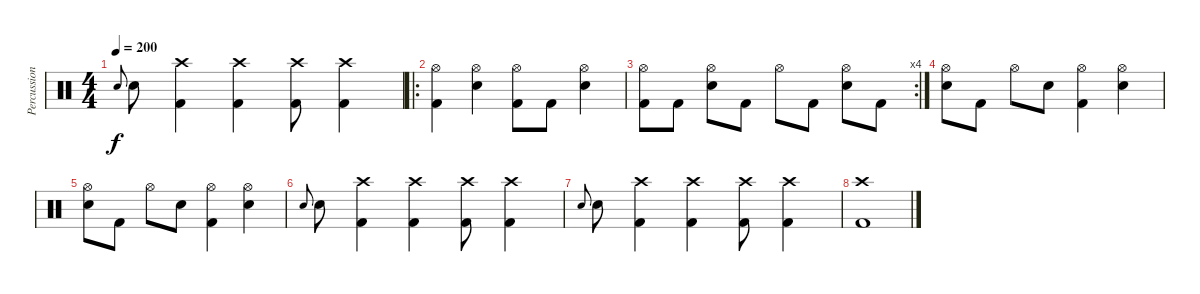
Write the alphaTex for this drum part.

\track ("Percussion" "Percussion") {instrument percussion}
\staff {score}
\articulation defaults
\ts (4 4)
\tempo 200
\clef neutral
\ks c "Electric Snare (hit)".8{gr onbeat dy f} "Electric Snare (hit)".8
("Crash high (hit)" "Kick (hit) 2").4 ("Crash high (hit)" "Kick (hit) 2").4 ("Crash high (hit)" "Kick (hit) 2").8 ("Crash high (hit)" "Kick (hit) 2").4 |
\ro
("Hi-Hat (open)" "Kick (hit) 2").4 ("Hi-Hat (open)" "Electric Snare (hit)").4 ("Hi-Hat (open)" "Kick (hit) 2").8 "Kick (hit) 2".8 ("Hi-Hat (open)" "Electric Snare (hit)").4 |
\rc 4
("Hi-Hat (open)" "Kick (hit) 2").8 "Kick (hit) 2".8 ("Hi-Hat (open)" "Electric Snare (hit)").8 "Kick (hit) 2".8 "Hi-Hat (open)".8 "Kick (hit) 2".8 ("Hi-Hat (open)" "Electric Snare (hit)").8 "Kick (hit) 2".8 |
("Hi-Hat (open)" "Electric Snare (hit)").8 "Kick (hit) 2".8 "Hi-Hat (open)".8 "Electric Snare (hit)".8 ("Hi-Hat (open)" "Kick (hit) 2").4 ("Hi-Hat (open)" "Electric Snare (hit)").4 |
("Hi-Hat (open)" "Electric Snare (hit)").8 "Kick (hit) 2".8 "Hi-Hat (open)".8 "Electric Snare (hit)".8 ("Hi-Hat (open)" "Kick (hit) 2").4 ("Hi-Hat (open)" "Electric Snare (hit)").4 |
"Electric Snare (hit)".8{gr onbeat} "Electric Snare (hit)".8 ("Crash high (hit)" "Kick (hit) 2").4 ("Crash high (hit)" "Kick (hit) 2").4 ("Crash high (hit)" "Kick (hit) 2").8 ("Crash high (hit)" "Kick (hit) 2").4 |
"Electric Snare (hit)".8{gr onbeat} "Electric Snare (hit)".8 ("Crash high (hit)" "Kick (hit) 2").4 ("Crash high (hit)" "Kick (hit) 2").4 ("Crash high (hit)" "Kick (hit) 2").8 ("Crash high (hit)" "Kick (hit) 2").4 |
("Crash high (hit)" "Kick (hit) 2").1
